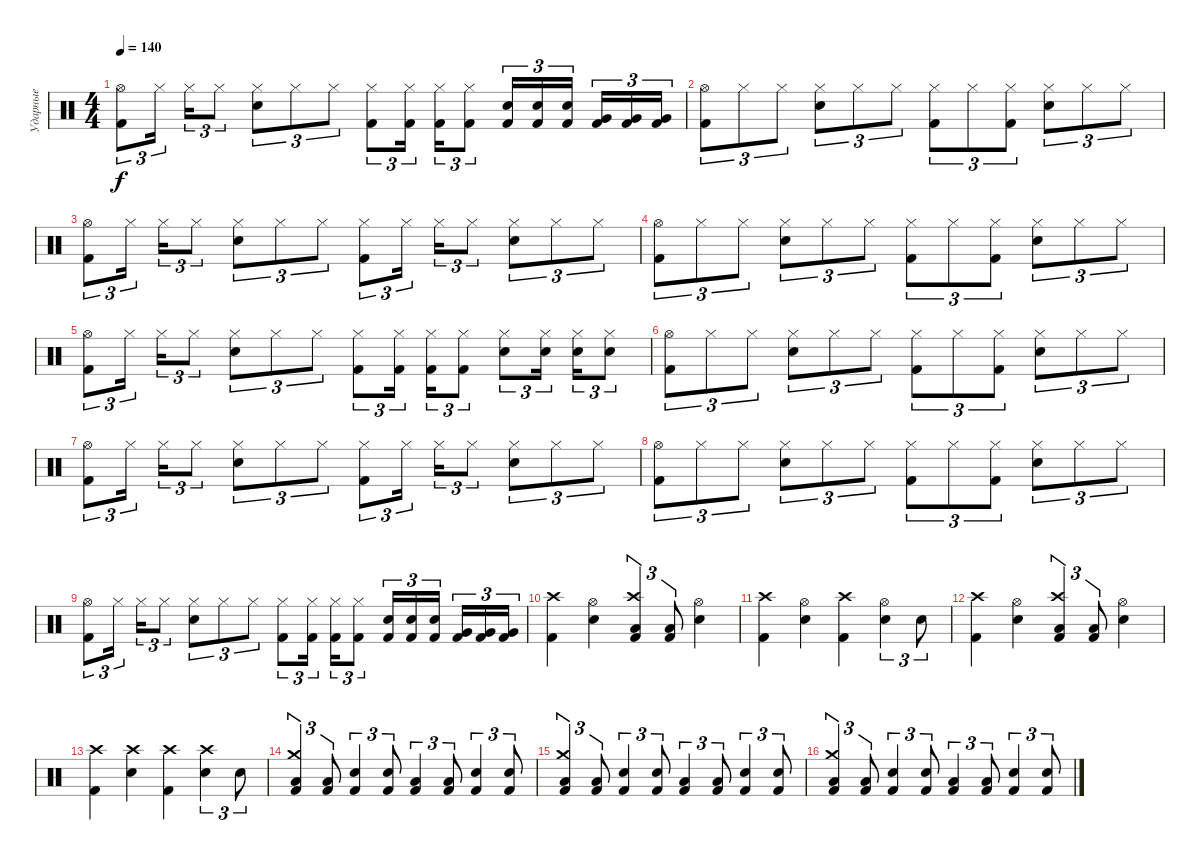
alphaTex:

\track ("Ударные" "Ударные") {instrument percussion}
\staff {score}
\articulation defaults
\ts (4 4)
\tempo 140
\clef neutral
\ks c
("Hi-Hat (open)" "Kick (hit) 2").8{tu (3 2) dy f} "Hi-Hat (closed)".16{tu (3 2) beam splitsecondary} "Hi-Hat (closed)".16{tu (3 2)} "Hi-Hat (closed)".8{tu (3 2)} ("Hi-Hat (closed)" "Snare (hit) 2").8{tu (3 2)} "Hi-Hat (closed)".8{tu (3 2)} "Hi-Hat (closed)".8{tu (3 2)} ("Hi-Hat (closed)" "Kick (hit) 2").8{tu (3 2)} ("Hi-Hat (closed)" "Kick (hit) 2").16{tu (3 2) beam splitsecondary} ("Hi-Hat (closed)" "Kick (hit) 2").16{tu (3 2)} ("Hi-Hat (closed)" "Kick (hit) 2").8{tu (3 2)} ("Snare (hit) 2" "Kick (hit) 2").16{tu (3 2)} ("Snare (hit) 2" "Kick (hit) 2").16{tu (3 2)} ("Snare (hit) 2" "Kick (hit) 2").16{tu (3 2) beam splitsecondary} ("Very Low Tom (hit)" "Kick (hit) 2").16{tu (3 2)} ("Very Low Tom (hit)" "Kick (hit) 2").16{tu (3 2)} ("Very Low Tom (hit)" "Kick (hit) 2").16{tu (3 2)} |
("Hi-Hat (open)" "Kick (hit) 2").8{tu (3 2)} "Hi-Hat (closed)".8{tu (3 2)} "Hi-Hat (closed)".8{tu (3 2)} ("Hi-Hat (closed)" "Snare (hit) 2").8{tu (3 2)} "Hi-Hat (closed)".8{tu (3 2)} "Hi-Hat (closed)".8{tu (3 2)} ("Hi-Hat (closed)" "Kick (hit) 2").8{tu (3 2)} "Hi-Hat (closed)".8{tu (3 2)} ("Hi-Hat (closed)" "Kick (hit) 2").8{tu (3 2)} ("Hi-Hat (closed)" "Snare (hit) 2").8{tu (3 2)} "Hi-Hat (closed)".8{tu (3 2)} "Hi-Hat (closed)".8{tu (3 2)} |
("Hi-Hat (open)" "Kick (hit) 2").8{tu (3 2)} "Hi-Hat (closed)".16{tu (3 2) beam splitsecondary} "Hi-Hat (closed)".16{tu (3 2)} "Hi-Hat (closed)".8{tu (3 2)} ("Hi-Hat (closed)" "Snare (hit) 2").8{tu (3 2)} "Hi-Hat (closed)".8{tu (3 2)} "Hi-Hat (closed)".8{tu (3 2)} ("Hi-Hat (closed)" "Kick (hit) 2").8{tu (3 2)} "Hi-Hat (closed)".16{tu (3 2) beam splitsecondary} "Hi-Hat (closed)".16{tu (3 2)} "Hi-Hat (closed)".8{tu (3 2)} ("Hi-Hat (closed)" "Snare (hit) 2").8{tu (3 2)} "Hi-Hat (closed)".8{tu (3 2)} "Hi-Hat (closed)".8{tu (3 2)} |
("Hi-Hat (open)" "Kick (hit) 2").8{tu (3 2)} "Hi-Hat (closed)".8{tu (3 2)} "Hi-Hat (closed)".8{tu (3 2)} ("Hi-Hat (closed)" "Snare (hit) 2").8{tu (3 2)} "Hi-Hat (closed)".8{tu (3 2)} "Hi-Hat (closed)".8{tu (3 2)} ("Hi-Hat (closed)" "Kick (hit) 2").8{tu (3 2)} "Hi-Hat (closed)".8{tu (3 2)} ("Hi-Hat (closed)" "Kick (hit) 2").8{tu (3 2)} ("Hi-Hat (closed)" "Snare (hit) 2").8{tu (3 2)} "Hi-Hat (closed)".8{tu (3 2)} "Hi-Hat (closed)".8{tu (3 2)} |
("Hi-Hat (open)" "Kick (hit) 2").8{tu (3 2)} "Hi-Hat (closed)".16{tu (3 2) beam splitsecondary} "Hi-Hat (closed)".16{tu (3 2)} "Hi-Hat (closed)".8{tu (3 2)} ("Hi-Hat (closed)" "Snare (hit) 2").8{tu (3 2)} "Hi-Hat (closed)".8{tu (3 2)} "Hi-Hat (closed)".8{tu (3 2)} ("Hi-Hat (closed)" "Kick (hit) 2").8{tu (3 2)} ("Hi-Hat (closed)" "Kick (hit) 2").16{tu (3 2) beam splitsecondary} ("Hi-Hat (closed)" "Kick (hit) 2").16{tu (3 2)} ("Hi-Hat (closed)" "Kick (hit) 2").8{tu (3 2)} ("Hi-Hat (closed)" "Snare (hit) 2").8{tu (3 2)} ("Hi-Hat (closed)" "Snare (hit) 2").16{tu (3 2) beam splitsecondary} ("Hi-Hat (closed)" "Snare (hit) 2").16{tu (3 2)} ("Hi-Hat (closed)" "Snare (hit) 2").8{tu (3 2)} |
("Hi-Hat (open)" "Kick (hit) 2").8{tu (3 2)} "Hi-Hat (closed)".8{tu (3 2)} "Hi-Hat (closed)".8{tu (3 2)} ("Hi-Hat (closed)" "Snare (hit) 2").8{tu (3 2)} "Hi-Hat (closed)".8{tu (3 2)} "Hi-Hat (closed)".8{tu (3 2)} ("Hi-Hat (closed)" "Kick (hit) 2").8{tu (3 2)} "Hi-Hat (closed)".8{tu (3 2)} ("Hi-Hat (closed)" "Kick (hit) 2").8{tu (3 2)} ("Hi-Hat (closed)" "Snare (hit) 2").8{tu (3 2)} "Hi-Hat (closed)".8{tu (3 2)} "Hi-Hat (closed)".8{tu (3 2)} |
("Hi-Hat (open)" "Kick (hit) 2").8{tu (3 2)} "Hi-Hat (closed)".16{tu (3 2) beam splitsecondary} "Hi-Hat (closed)".16{tu (3 2)} "Hi-Hat (closed)".8{tu (3 2)} ("Hi-Hat (closed)" "Snare (hit) 2").8{tu (3 2)} "Hi-Hat (closed)".8{tu (3 2)} "Hi-Hat (closed)".8{tu (3 2)} ("Hi-Hat (closed)" "Kick (hit) 2").8{tu (3 2)} "Hi-Hat (closed)".16{tu (3 2) beam splitsecondary} "Hi-Hat (closed)".16{tu (3 2)} "Hi-Hat (closed)".8{tu (3 2)} ("Hi-Hat (closed)" "Snare (hit) 2").8{tu (3 2)} "Hi-Hat (closed)".8{tu (3 2)} "Hi-Hat (closed)".8{tu (3 2)} |
("Hi-Hat (open)" "Kick (hit) 2").8{tu (3 2)} "Hi-Hat (closed)".8{tu (3 2)} "Hi-Hat (closed)".8{tu (3 2)} ("Hi-Hat (closed)" "Snare (hit) 2").8{tu (3 2)} "Hi-Hat (closed)".8{tu (3 2)} "Hi-Hat (closed)".8{tu (3 2)} ("Hi-Hat (closed)" "Kick (hit) 2").8{tu (3 2)} "Hi-Hat (closed)".8{tu (3 2)} ("Hi-Hat (closed)" "Kick (hit) 2").8{tu (3 2)} ("Hi-Hat (closed)" "Snare (hit) 2").8{tu (3 2)} "Hi-Hat (closed)".8{tu (3 2)} "Hi-Hat (closed)".8{tu (3 2)} |
("Hi-Hat (open)" "Kick (hit) 2").8{tu (3 2)} "Hi-Hat (closed)".16{tu (3 2) beam splitsecondary} "Hi-Hat (closed)".16{tu (3 2)} "Hi-Hat (closed)".8{tu (3 2)} ("Hi-Hat (closed)" "Snare (hit) 2").8{tu (3 2)} "Hi-Hat (closed)".8{tu (3 2)} "Hi-Hat (closed)".8{tu (3 2)} ("Hi-Hat (closed)" "Kick (hit) 2").8{tu (3 2)} ("Hi-Hat (closed)" "Kick (hit) 2").16{tu (3 2) beam splitsecondary} ("Hi-Hat (closed)" "Kick (hit) 2").16{tu (3 2)} ("Hi-Hat (closed)" "Kick (hit) 2").8{tu (3 2)} ("Snare (hit) 2" "Kick (hit) 2").16{tu (3 2)} ("Snare (hit) 2" "Kick (hit) 2").16{tu (3 2)} ("Snare (hit) 2" "Kick (hit) 2").16{tu (3 2) beam splitsecondary} ("Very Low Tom (hit)" "Kick (hit) 2").16{tu (3 2)} ("Very Low Tom (hit)" "Kick (hit) 2").16{tu (3 2)} ("Very Low Tom (hit)" "Kick (hit) 2").16{tu (3 2)} |
("Crash high (hit)" "Kick (hit) 2").4 ("Hi-Hat (open)" "Snare (hit) 2").4 ("Crash high (hit)" "Low Tom (hit)" "Kick (hit) 2").4{tu (3 2)} ("Low Tom (hit)" "Kick (hit) 2").8{tu (3 2)} ("Hi-Hat (open)" "Snare (hit) 2").4 |
("Crash high (hit)" "Kick (hit) 2").4 ("Hi-Hat (open)" "Snare (hit) 2").4 ("Crash high (hit)" "Kick (hit) 2").4 ("Hi-Hat (open)" "Snare (hit) 2").4{tu (3 2)} "Snare (hit) 2".8{tu (3 2)} |
("Crash high (hit)" "Kick (hit) 2").4 ("Hi-Hat (open)" "Snare (hit) 2").4 ("Crash high (hit)" "Low Tom (hit)" "Kick (hit) 2").4{tu (3 2)} ("Low Tom (hit)" "Kick (hit) 2").8{tu (3 2)} ("Hi-Hat (open)" "Snare (hit) 2").4 |
("Crash high (hit)" "Kick (hit) 2").4 ("Crash high (hit)" "Snare (hit) 2").4 ("Crash high (hit)" "Kick (hit) 2").4 ("Crash high (hit)" "Snare (hit) 2").4{tu (3 2)} "Snare (hit) 2".8{tu (3 2)} |
("Crash medium (hit)" "Low Floor Tom (hit)" "Kick (hit) 2").4{tu (3 2)} ("Low Floor Tom (hit)" "Kick (hit) 2").8{tu (3 2)} ("Snare (hit) 2" "Kick (hit) 2").4{tu (3 2)} ("Snare (hit) 2" "Kick (hit) 2").8{tu (3 2)} ("Low Tom (hit)" "Kick (hit) 2").4{tu (3 2)} ("Low Tom (hit)" "Kick (hit) 2").8{tu (3 2)} ("Snare (hit) 2" "Kick (hit) 2").4{tu (3 2)} ("Snare (hit) 2" "Kick (hit) 2").8{tu (3 2)} |
("Crash medium (hit)" "Low Floor Tom (hit)" "Kick (hit) 2").4{tu (3 2)} ("Low Floor Tom (hit)" "Kick (hit) 2").8{tu (3 2)} ("Snare (hit) 2" "Kick (hit) 2").4{tu (3 2)} ("Snare (hit) 2" "Kick (hit) 2").8{tu (3 2)} ("Low Tom (hit)" "Kick (hit) 2").4{tu (3 2)} ("Low Tom (hit)" "Kick (hit) 2").8{tu (3 2)} ("Snare (hit) 2" "Kick (hit) 2").4{tu (3 2)} ("Snare (hit) 2" "Kick (hit) 2").8{tu (3 2)} |
("Crash medium (hit)" "Low Floor Tom (hit)" "Kick (hit) 2").4{tu (3 2)} ("Low Floor Tom (hit)" "Kick (hit) 2").8{tu (3 2)} ("Snare (hit) 2" "Kick (hit) 2").4{tu (3 2)} ("Snare (hit) 2" "Kick (hit) 2").8{tu (3 2)} ("Low Tom (hit)" "Kick (hit) 2").4{tu (3 2)} ("Low Tom (hit)" "Kick (hit) 2").8{tu (3 2)} ("Snare (hit) 2" "Kick (hit) 2").4{tu (3 2)} ("Snare (hit) 2" "Kick (hit) 2").8{tu (3 2)}
